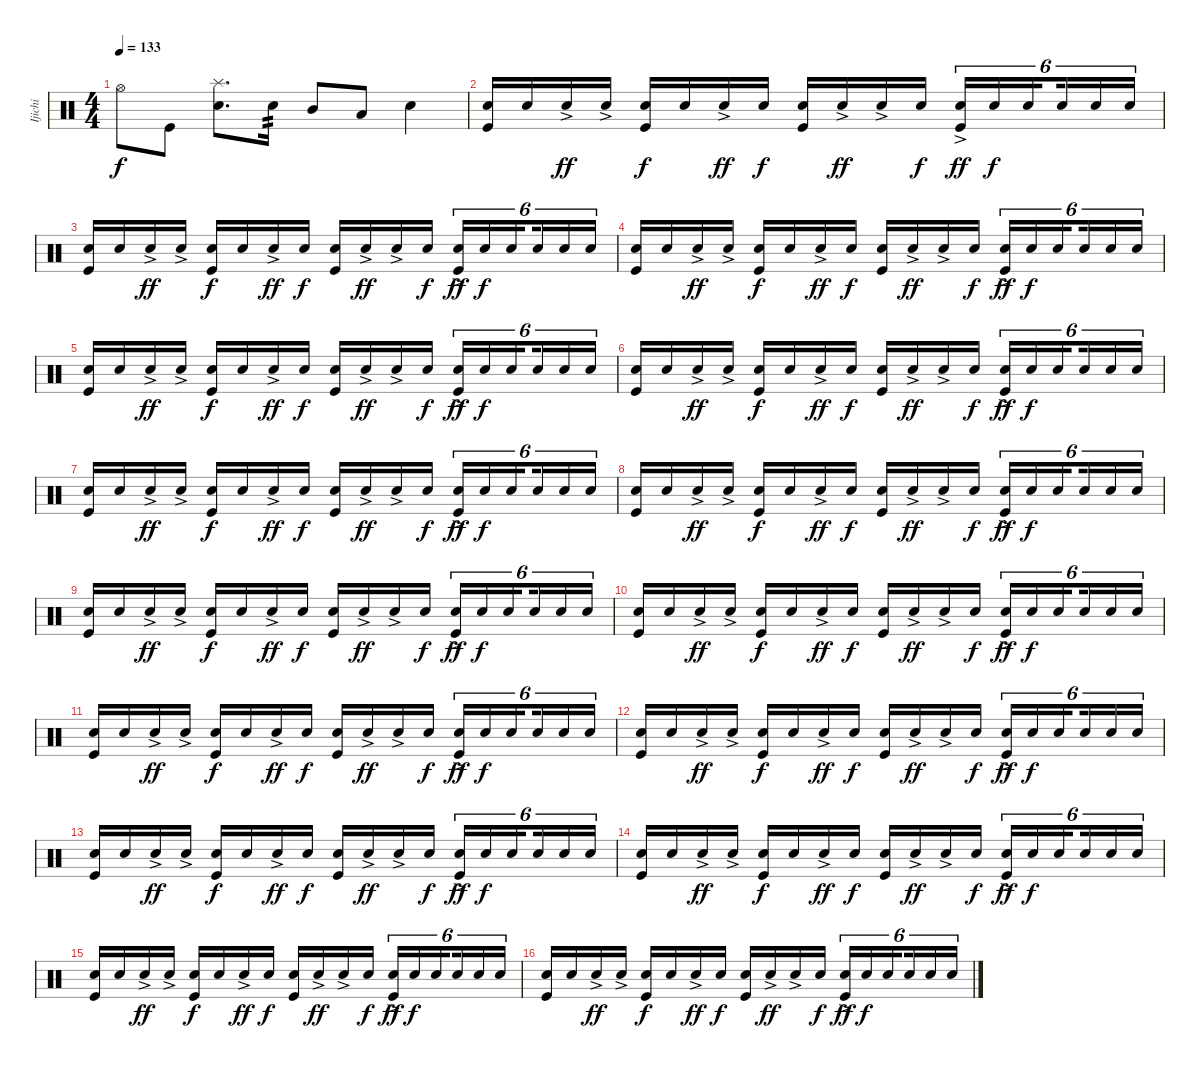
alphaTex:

\track ("Ijichi" "Ijichi") {instrument percussion}
\staff {score}
\articulation defaults
\ts (4 4)
\tempo 133
\clef neutral
\ks c "Hi-Hat (open)".8{dy f} "Kick (hit)".8
("Splash (hit)" "Electric Snare (hit)").8{d} "Electric Snare (hit)".16{tp 2} "Mid Tom (hit)".8 "Low Tom (hit)".8 "Electric Snare (hit)".4 |
("Electric Snare (hit)" "Kick (hit)").16 "Electric Snare (hit)".16 "Electric Snare (hit)"{ac}.16{dy ff} "Electric Snare (hit)"{ac}.16 ("Electric Snare (hit)" "Kick (hit)").16{dy f} "Electric Snare (hit)".16 "Electric Snare (hit)"{ac}.16{dy ff} "Electric Snare (hit)".16{dy f} ("Electric Snare (hit)" "Kick (hit)").16 "Electric Snare (hit)"{ac}.16{dy ff} "Electric Snare (hit)"{ac}.16 "Electric Snare (hit)".16{dy f} ("Electric Snare (hit)"{ac} "Kick (hit)").16{tu (6 4) dy ff} "Electric Snare (hit)".16{tu (6 4) dy f} "Electric Snare (hit)".16{tu (6 4) beam splitsecondary} "Electric Snare (hit)".16{tu (6 4)} "Electric Snare (hit)".16{tu (6 4)} "Electric Snare (hit)".16{tu (6 4)} |
("Electric Snare (hit)" "Kick (hit)").16 "Electric Snare (hit)".16 "Electric Snare (hit)"{ac}.16{dy ff} "Electric Snare (hit)"{ac}.16 ("Electric Snare (hit)" "Kick (hit)").16{dy f} "Electric Snare (hit)".16 "Electric Snare (hit)"{ac}.16{dy ff} "Electric Snare (hit)".16{dy f} ("Electric Snare (hit)" "Kick (hit)").16 "Electric Snare (hit)"{ac}.16{dy ff} "Electric Snare (hit)"{ac}.16 "Electric Snare (hit)".16{dy f} ("Electric Snare (hit)"{ac} "Kick (hit)").16{tu (6 4) dy ff} "Electric Snare (hit)".16{tu (6 4) dy f} "Electric Snare (hit)".16{tu (6 4) beam splitsecondary} "Electric Snare (hit)".16{tu (6 4)} "Electric Snare (hit)".16{tu (6 4)} "Electric Snare (hit)".16{tu (6 4)} |
("Electric Snare (hit)" "Kick (hit)").16 "Electric Snare (hit)".16 "Electric Snare (hit)"{ac}.16{dy ff} "Electric Snare (hit)"{ac}.16 ("Electric Snare (hit)" "Kick (hit)").16{dy f} "Electric Snare (hit)".16 "Electric Snare (hit)"{ac}.16{dy ff} "Electric Snare (hit)".16{dy f} ("Electric Snare (hit)" "Kick (hit)").16 "Electric Snare (hit)"{ac}.16{dy ff} "Electric Snare (hit)"{ac}.16 "Electric Snare (hit)".16{dy f} ("Electric Snare (hit)"{ac} "Kick (hit)").16{tu (6 4) dy ff} "Electric Snare (hit)".16{tu (6 4) dy f} "Electric Snare (hit)".16{tu (6 4) beam splitsecondary} "Electric Snare (hit)".16{tu (6 4)} "Electric Snare (hit)".16{tu (6 4)} "Electric Snare (hit)".16{tu (6 4)} |
("Electric Snare (hit)" "Kick (hit)").16 "Electric Snare (hit)".16 "Electric Snare (hit)"{ac}.16{dy ff} "Electric Snare (hit)"{ac}.16 ("Electric Snare (hit)" "Kick (hit)").16{dy f} "Electric Snare (hit)".16 "Electric Snare (hit)"{ac}.16{dy ff} "Electric Snare (hit)".16{dy f} ("Electric Snare (hit)" "Kick (hit)").16 "Electric Snare (hit)"{ac}.16{dy ff} "Electric Snare (hit)"{ac}.16 "Electric Snare (hit)".16{dy f} ("Electric Snare (hit)"{ac} "Kick (hit)").16{tu (6 4) dy ff} "Electric Snare (hit)".16{tu (6 4) dy f} "Electric Snare (hit)".16{tu (6 4) beam splitsecondary} "Electric Snare (hit)".16{tu (6 4)} "Electric Snare (hit)".16{tu (6 4)} "Electric Snare (hit)".16{tu (6 4)} |
("Electric Snare (hit)" "Kick (hit)").16 "Electric Snare (hit)".16 "Electric Snare (hit)"{ac}.16{dy ff} "Electric Snare (hit)"{ac}.16 ("Electric Snare (hit)" "Kick (hit)").16{dy f} "Electric Snare (hit)".16 "Electric Snare (hit)"{ac}.16{dy ff} "Electric Snare (hit)".16{dy f} ("Electric Snare (hit)" "Kick (hit)").16 "Electric Snare (hit)"{ac}.16{dy ff} "Electric Snare (hit)"{ac}.16 "Electric Snare (hit)".16{dy f} ("Electric Snare (hit)"{ac} "Kick (hit)").16{tu (6 4) dy ff} "Electric Snare (hit)".16{tu (6 4) dy f} "Electric Snare (hit)".16{tu (6 4) beam splitsecondary} "Electric Snare (hit)".16{tu (6 4)} "Electric Snare (hit)".16{tu (6 4)} "Electric Snare (hit)".16{tu (6 4)} |
("Electric Snare (hit)" "Kick (hit)").16 "Electric Snare (hit)".16 "Electric Snare (hit)"{ac}.16{dy ff} "Electric Snare (hit)"{ac}.16 ("Electric Snare (hit)" "Kick (hit)").16{dy f} "Electric Snare (hit)".16 "Electric Snare (hit)"{ac}.16{dy ff} "Electric Snare (hit)".16{dy f} ("Electric Snare (hit)" "Kick (hit)").16 "Electric Snare (hit)"{ac}.16{dy ff} "Electric Snare (hit)"{ac}.16 "Electric Snare (hit)".16{dy f} ("Electric Snare (hit)"{ac} "Kick (hit)").16{tu (6 4) dy ff} "Electric Snare (hit)".16{tu (6 4) dy f} "Electric Snare (hit)".16{tu (6 4) beam splitsecondary} "Electric Snare (hit)".16{tu (6 4)} "Electric Snare (hit)".16{tu (6 4)} "Electric Snare (hit)".16{tu (6 4)} |
("Electric Snare (hit)" "Kick (hit)").16 "Electric Snare (hit)".16 "Electric Snare (hit)"{ac}.16{dy ff} "Electric Snare (hit)"{ac}.16 ("Electric Snare (hit)" "Kick (hit)").16{dy f} "Electric Snare (hit)".16 "Electric Snare (hit)"{ac}.16{dy ff} "Electric Snare (hit)".16{dy f} ("Electric Snare (hit)" "Kick (hit)").16 "Electric Snare (hit)"{ac}.16{dy ff} "Electric Snare (hit)"{ac}.16 "Electric Snare (hit)".16{dy f} ("Electric Snare (hit)"{ac} "Kick (hit)").16{tu (6 4) dy ff} "Electric Snare (hit)".16{tu (6 4) dy f} "Electric Snare (hit)".16{tu (6 4) beam splitsecondary} "Electric Snare (hit)".16{tu (6 4)} "Electric Snare (hit)".16{tu (6 4)} "Electric Snare (hit)".16{tu (6 4)} |
("Electric Snare (hit)" "Kick (hit)").16 "Electric Snare (hit)".16 "Electric Snare (hit)"{ac}.16{dy ff} "Electric Snare (hit)"{ac}.16 ("Electric Snare (hit)" "Kick (hit)").16{dy f} "Electric Snare (hit)".16 "Electric Snare (hit)"{ac}.16{dy ff} "Electric Snare (hit)".16{dy f} ("Electric Snare (hit)" "Kick (hit)").16 "Electric Snare (hit)"{ac}.16{dy ff} "Electric Snare (hit)"{ac}.16 "Electric Snare (hit)".16{dy f} ("Electric Snare (hit)"{ac} "Kick (hit)").16{tu (6 4) dy ff} "Electric Snare (hit)".16{tu (6 4) dy f} "Electric Snare (hit)".16{tu (6 4) beam splitsecondary} "Electric Snare (hit)".16{tu (6 4)} "Electric Snare (hit)".16{tu (6 4)} "Electric Snare (hit)".16{tu (6 4)} |
("Electric Snare (hit)" "Kick (hit)").16 "Electric Snare (hit)".16 "Electric Snare (hit)"{ac}.16{dy ff} "Electric Snare (hit)"{ac}.16 ("Electric Snare (hit)" "Kick (hit)").16{dy f} "Electric Snare (hit)".16 "Electric Snare (hit)"{ac}.16{dy ff} "Electric Snare (hit)".16{dy f} ("Electric Snare (hit)" "Kick (hit)").16 "Electric Snare (hit)"{ac}.16{dy ff} "Electric Snare (hit)"{ac}.16 "Electric Snare (hit)".16{dy f} ("Electric Snare (hit)"{ac} "Kick (hit)").16{tu (6 4) dy ff} "Electric Snare (hit)".16{tu (6 4) dy f} "Electric Snare (hit)".16{tu (6 4) beam splitsecondary} "Electric Snare (hit)".16{tu (6 4)} "Electric Snare (hit)".16{tu (6 4)} "Electric Snare (hit)".16{tu (6 4)} |
("Electric Snare (hit)" "Kick (hit)").16 "Electric Snare (hit)".16 "Electric Snare (hit)"{ac}.16{dy ff} "Electric Snare (hit)"{ac}.16 ("Electric Snare (hit)" "Kick (hit)").16{dy f} "Electric Snare (hit)".16 "Electric Snare (hit)"{ac}.16{dy ff} "Electric Snare (hit)".16{dy f} ("Electric Snare (hit)" "Kick (hit)").16 "Electric Snare (hit)"{ac}.16{dy ff} "Electric Snare (hit)"{ac}.16 "Electric Snare (hit)".16{dy f} ("Electric Snare (hit)"{ac} "Kick (hit)").16{tu (6 4) dy ff} "Electric Snare (hit)".16{tu (6 4) dy f} "Electric Snare (hit)".16{tu (6 4) beam splitsecondary} "Electric Snare (hit)".16{tu (6 4)} "Electric Snare (hit)".16{tu (6 4)} "Electric Snare (hit)".16{tu (6 4)} |
("Electric Snare (hit)" "Kick (hit)").16 "Electric Snare (hit)".16 "Electric Snare (hit)"{ac}.16{dy ff} "Electric Snare (hit)"{ac}.16 ("Electric Snare (hit)" "Kick (hit)").16{dy f} "Electric Snare (hit)".16 "Electric Snare (hit)"{ac}.16{dy ff} "Electric Snare (hit)".16{dy f} ("Electric Snare (hit)" "Kick (hit)").16 "Electric Snare (hit)"{ac}.16{dy ff} "Electric Snare (hit)"{ac}.16 "Electric Snare (hit)".16{dy f} ("Electric Snare (hit)"{ac} "Kick (hit)").16{tu (6 4) dy ff} "Electric Snare (hit)".16{tu (6 4) dy f} "Electric Snare (hit)".16{tu (6 4) beam splitsecondary} "Electric Snare (hit)".16{tu (6 4)} "Electric Snare (hit)".16{tu (6 4)} "Electric Snare (hit)".16{tu (6 4)} |
("Electric Snare (hit)" "Kick (hit)").16 "Electric Snare (hit)".16 "Electric Snare (hit)"{ac}.16{dy ff} "Electric Snare (hit)"{ac}.16 ("Electric Snare (hit)" "Kick (hit)").16{dy f} "Electric Snare (hit)".16 "Electric Snare (hit)"{ac}.16{dy ff} "Electric Snare (hit)".16{dy f} ("Electric Snare (hit)" "Kick (hit)").16 "Electric Snare (hit)"{ac}.16{dy ff} "Electric Snare (hit)"{ac}.16 "Electric Snare (hit)".16{dy f} ("Electric Snare (hit)"{ac} "Kick (hit)").16{tu (6 4) dy ff} "Electric Snare (hit)".16{tu (6 4) dy f} "Electric Snare (hit)".16{tu (6 4) beam splitsecondary} "Electric Snare (hit)".16{tu (6 4)} "Electric Snare (hit)".16{tu (6 4)} "Electric Snare (hit)".16{tu (6 4)} |
("Electric Snare (hit)" "Kick (hit)").16 "Electric Snare (hit)".16 "Electric Snare (hit)"{ac}.16{dy ff} "Electric Snare (hit)"{ac}.16 ("Electric Snare (hit)" "Kick (hit)").16{dy f} "Electric Snare (hit)".16 "Electric Snare (hit)"{ac}.16{dy ff} "Electric Snare (hit)".16{dy f} ("Electric Snare (hit)" "Kick (hit)").16 "Electric Snare (hit)"{ac}.16{dy ff} "Electric Snare (hit)"{ac}.16 "Electric Snare (hit)".16{dy f} ("Electric Snare (hit)"{ac} "Kick (hit)").16{tu (6 4) dy ff} "Electric Snare (hit)".16{tu (6 4) dy f} "Electric Snare (hit)".16{tu (6 4) beam splitsecondary} "Electric Snare (hit)".16{tu (6 4)} "Electric Snare (hit)".16{tu (6 4)} "Electric Snare (hit)".16{tu (6 4)} |
("Electric Snare (hit)" "Kick (hit)").16 "Electric Snare (hit)".16 "Electric Snare (hit)"{ac}.16{dy ff} "Electric Snare (hit)"{ac}.16 ("Electric Snare (hit)" "Kick (hit)").16{dy f} "Electric Snare (hit)".16 "Electric Snare (hit)"{ac}.16{dy ff} "Electric Snare (hit)".16{dy f} ("Electric Snare (hit)" "Kick (hit)").16 "Electric Snare (hit)"{ac}.16{dy ff} "Electric Snare (hit)"{ac}.16 "Electric Snare (hit)".16{dy f} ("Electric Snare (hit)"{ac} "Kick (hit)").16{tu (6 4) dy ff} "Electric Snare (hit)".16{tu (6 4) dy f} "Electric Snare (hit)".16{tu (6 4) beam splitsecondary} "Electric Snare (hit)".16{tu (6 4)} "Electric Snare (hit)".16{tu (6 4)} "Electric Snare (hit)".16{tu (6 4)} |
("Electric Snare (hit)" "Kick (hit)").16 "Electric Snare (hit)".16 "Electric Snare (hit)"{ac}.16{dy ff} "Electric Snare (hit)"{ac}.16 ("Electric Snare (hit)" "Kick (hit)").16{dy f} "Electric Snare (hit)".16 "Electric Snare (hit)"{ac}.16{dy ff} "Electric Snare (hit)".16{dy f} ("Electric Snare (hit)" "Kick (hit)").16 "Electric Snare (hit)"{ac}.16{dy ff} "Electric Snare (hit)"{ac}.16 "Electric Snare (hit)".16{dy f} ("Electric Snare (hit)"{ac} "Kick (hit)").16{tu (6 4) dy ff} "Electric Snare (hit)".16{tu (6 4) dy f} "Electric Snare (hit)".16{tu (6 4) beam splitsecondary} "Electric Snare (hit)".16{tu (6 4)} "Electric Snare (hit)".16{tu (6 4)} "Electric Snare (hit)".16{tu (6 4)}
